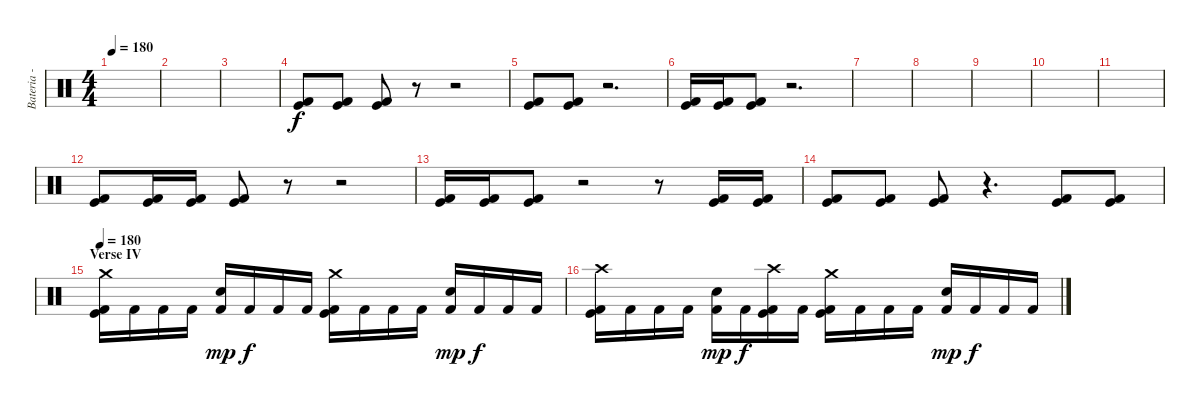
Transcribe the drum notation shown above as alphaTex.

\track ("Bateria - Drums" "Bateria - ") {instrument percussion}
\staff {score}
\articulation defaults
\ts (4 4)
\tempo 180
\clef neutral
\ks c
|
|
|
("Kick (hit)" "Kick (hit) 2").8 ("Kick (hit)" "Kick (hit) 2").8 ("Kick (hit)" "Kick (hit) 2").8 r.8 r.2 |
("Kick (hit)" "Kick (hit) 2").8 ("Kick (hit)" "Kick (hit) 2").8 r.2{d} |
("Kick (hit)" "Kick (hit) 2").16 ("Kick (hit)" "Kick (hit) 2").16 ("Kick (hit)" "Kick (hit) 2").8 r.2{d} |
|
|
|
|
|
("Kick (hit)" "Kick (hit) 2").8 ("Kick (hit)" "Kick (hit) 2").16 ("Kick (hit)" "Kick (hit) 2").16 ("Kick (hit)" "Kick (hit) 2").8 r.8 r.2 |
("Kick (hit)" "Kick (hit) 2").16 ("Kick (hit)" "Kick (hit) 2").16 ("Kick (hit)" "Kick (hit) 2").8 r.2 r.8 ("Kick (hit)" "Kick (hit) 2").16 ("Kick (hit)" "Kick (hit) 2").16 |
("Kick (hit)" "Kick (hit) 2").8 ("Kick (hit)" "Kick (hit) 2").8 ("Kick (hit)" "Kick (hit) 2").8 r.4{d} ("Kick (hit)" "Kick (hit) 2").8 ("Kick (hit)" "Kick (hit) 2").8 |
\section ("" "Verse IV")
\tempo 180
("Crash medium (hit)" "Kick (hit)" "Kick (hit) 2").16 "Kick (hit) 2".16 "Kick (hit) 2".16 "Kick (hit) 2".16 ("Snare (hit) 2" "Kick (hit) 2").16{dy mp} "Kick (hit) 2".16{dy f} "Kick (hit) 2".16 "Kick (hit) 2".16 ("Crash medium (hit)" "Kick (hit)" "Kick (hit) 2").16 "Kick (hit) 2".16 "Kick (hit) 2".16 "Kick (hit) 2".16 ("Snare (hit) 2" "Kick (hit) 2").16{dy mp} "Kick (hit) 2".16{dy f} "Kick (hit) 2".16 "Kick (hit) 2".16 |
("Crash high (hit)" "Kick (hit)" "Kick (hit) 2").16 "Kick (hit) 2".16 "Kick (hit) 2".16 "Kick (hit) 2".16 ("Snare (hit) 2" "Kick (hit) 2").16{dy mp} "Kick (hit) 2".16{dy f} ("Crash high (hit)" "Kick (hit)" "Kick (hit) 2").16 "Kick (hit) 2".16 ("Crash medium (hit)" "Kick (hit)" "Kick (hit) 2").16 "Kick (hit) 2".16 "Kick (hit) 2".16 "Kick (hit) 2".16 ("Snare (hit) 2" "Kick (hit) 2").16{dy mp} "Kick (hit) 2".16{dy f} "Kick (hit) 2".16 "Kick (hit) 2".16
